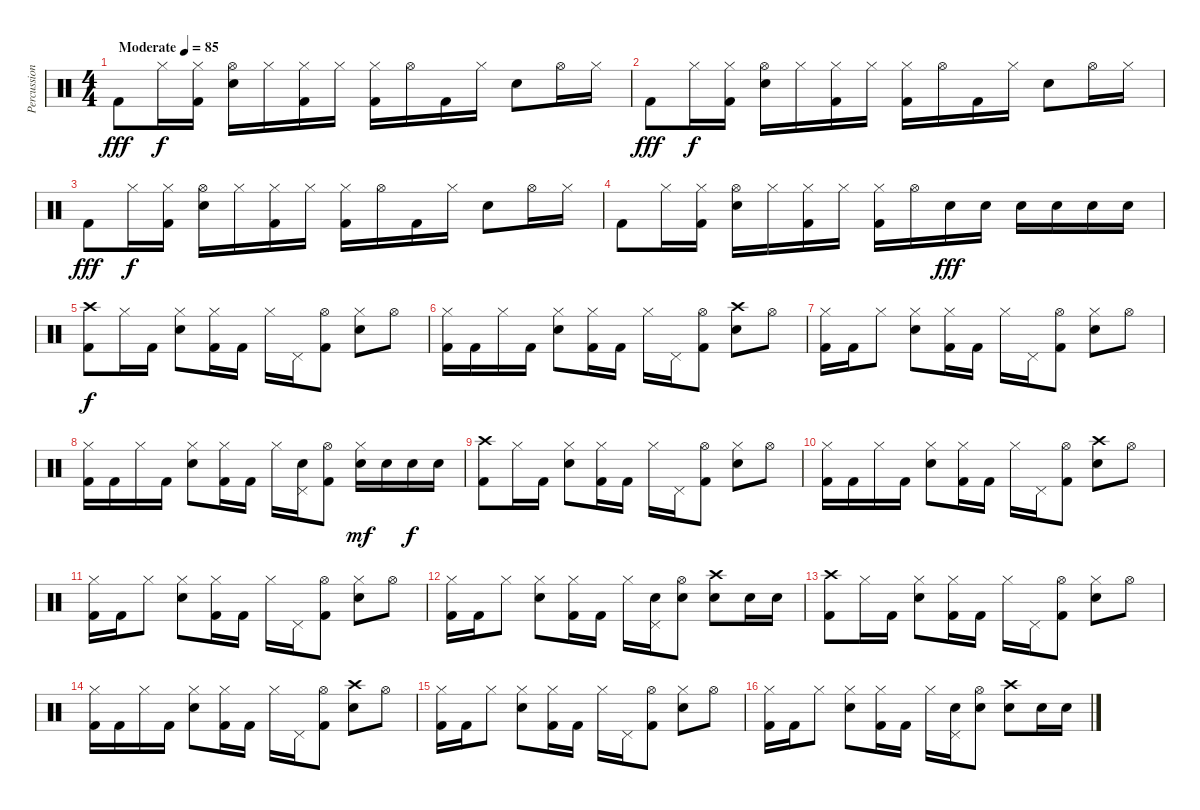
\track ("Percussion" "Percussion") {instrument percussion}
\staff {score}
\articulation defaults
\ts (4 4)
\tempo (85 "Moderate")
\clef neutral
\ks c "Kick (hit) 2".8{dy fff} "Hi-Hat (closed)".16{dy f}
("Hi-Hat (closed)" "Kick (hit) 2").16 ("Hi-Hat (open)" "Snare (hit) 2").16 "Hi-Hat (closed)".16 ("Hi-Hat (closed)" "Kick (hit) 2").16 "Hi-Hat (closed)".16 ("Hi-Hat (closed)" "Kick (hit) 2").16 "Hi-Hat (open)".16 "Kick (hit) 2".16 "Hi-Hat (closed)".16 "Snare (hit) 2".8 "Hi-Hat (open)".16 "Hi-Hat (closed)".16 |
"Kick (hit) 2".8{dy fff} "Hi-Hat (closed)".16{dy f} ("Hi-Hat (closed)" "Kick (hit) 2").16 ("Hi-Hat (open)" "Snare (hit) 2").16 "Hi-Hat (closed)".16 ("Hi-Hat (closed)" "Kick (hit) 2").16 "Hi-Hat (closed)".16 ("Hi-Hat (closed)" "Kick (hit) 2").16 "Hi-Hat (open)".16 "Kick (hit) 2".16 "Hi-Hat (closed)".16 "Snare (hit) 2".8 "Hi-Hat (open)".16 "Hi-Hat (closed)".16 |
"Kick (hit) 2".8{dy fff} "Hi-Hat (closed)".16{dy f} ("Hi-Hat (closed)" "Kick (hit) 2").16 ("Hi-Hat (open)" "Snare (hit) 2").16 "Hi-Hat (closed)".16 ("Hi-Hat (closed)" "Kick (hit) 2").16 "Hi-Hat (closed)".16 ("Hi-Hat (closed)" "Kick (hit) 2").16 "Hi-Hat (open)".16 "Kick (hit) 2".16 "Hi-Hat (closed)".16 "Snare (hit) 2".8 "Hi-Hat (open)".16 "Hi-Hat (closed)".16 |
"Kick (hit) 2".8 "Hi-Hat (closed)".16 ("Hi-Hat (closed)" "Kick (hit) 2").16 ("Snare (hit) 2" "Hi-Hat (open)").16 "Hi-Hat (closed)".16 ("Hi-Hat (closed)" "Kick (hit) 2").16 "Hi-Hat (closed)".16 ("Kick (hit) 2" "Hi-Hat (closed)").16 "Hi-Hat (open)".16 "Electric Snare (hit)".16{dy fff} "Electric Snare (hit)".16 "Electric Snare (hit)".16 "Electric Snare (hit)".16 "Electric Snare (hit)".16 "Electric Snare (hit)".16 |
("Crash high (hit)" "Kick (hit) 2").8{dy f} "Hi-Hat (closed)".16 "Kick (hit) 2".16 ("Hi-Hat (closed)" "Snare (hit) 2").8 ("Hi-Hat (closed)" "Kick (hit) 2").16 "Kick (hit) 2".16 "Hi-Hat (closed)".16 "Pedal Hi-Hat (hit)".16 ("Hi-Hat (open)" "Kick (hit) 2").8 ("Hi-Hat (closed)" "Snare (hit) 2").8 "Hi-Hat (open)".8 |
("Hi-Hat (closed)" "Kick (hit) 2").16 "Kick (hit) 2".16 "Hi-Hat (closed)".16 "Kick (hit) 2".16 ("Hi-Hat (closed)" "Snare (hit) 2").8 ("Hi-Hat (closed)" "Kick (hit) 2").16 "Kick (hit) 2".16 "Hi-Hat (closed)".16 "Pedal Hi-Hat (hit)".16 ("Kick (hit) 2" "Hi-Hat (open)").8 ("Snare (hit) 2" "Crash high (hit)").8 "Hi-Hat (open)".8 |
("Hi-Hat (closed)" "Kick (hit) 2").16 "Kick (hit) 2".16 "Hi-Hat (closed)".8 ("Hi-Hat (closed)" "Snare (hit) 2").8 ("Hi-Hat (closed)" "Kick (hit) 2").16 "Kick (hit) 2".16 "Hi-Hat (closed)".16 "Pedal Hi-Hat (hit)".16 ("Hi-Hat (open)" "Kick (hit) 2").8 ("Hi-Hat (closed)" "Snare (hit) 2").8 "Hi-Hat (open)".8 |
("Hi-Hat (closed)" "Kick (hit) 2").16 "Kick (hit) 2".16 "Hi-Hat (closed)".16 "Kick (hit) 2".16 ("Hi-Hat (closed)" "Snare (hit) 2").8 ("Hi-Hat (closed)" "Kick (hit) 2").16 "Kick (hit) 2".16 "Hi-Hat (closed)".16 ("Pedal Hi-Hat (hit)" "Electric Snare (hit)").16 ("Hi-Hat (open)" "Kick (hit) 2").8 ("Hi-Hat (closed)" "Snare (hit) 2").16{dy mf} "Snare (hit) 2".16 "Snare (hit) 2".16{dy f} "Snare (hit) 2".16 |
("Crash high (hit)" "Kick (hit) 2").8 "Hi-Hat (closed)".16 "Kick (hit) 2".16 ("Hi-Hat (closed)" "Snare (hit) 2").8 ("Hi-Hat (closed)" "Kick (hit) 2").16 "Kick (hit) 2".16 "Hi-Hat (closed)".16 "Pedal Hi-Hat (hit)".16 ("Hi-Hat (open)" "Kick (hit) 2").8 ("Hi-Hat (closed)" "Snare (hit) 2").8 "Hi-Hat (open)".8 |
("Hi-Hat (closed)" "Kick (hit) 2").16 "Kick (hit) 2".16 "Hi-Hat (closed)".16 "Kick (hit) 2".16 ("Hi-Hat (closed)" "Snare (hit) 2").8 ("Hi-Hat (closed)" "Kick (hit) 2").16 "Kick (hit) 2".16 "Hi-Hat (closed)".16 "Pedal Hi-Hat (hit)".16 ("Kick (hit) 2" "Hi-Hat (open)").8 ("Snare (hit) 2" "Crash high (hit)").8 "Hi-Hat (open)".8 |
("Hi-Hat (closed)" "Kick (hit) 2").16 "Kick (hit) 2".16 "Hi-Hat (closed)".8 ("Hi-Hat (closed)" "Snare (hit) 2").8 ("Hi-Hat (closed)" "Kick (hit) 2").16 "Kick (hit) 2".16 "Hi-Hat (closed)".16 "Pedal Hi-Hat (hit)".16 ("Hi-Hat (open)" "Kick (hit) 2").8 ("Hi-Hat (closed)" "Snare (hit) 2").8 "Hi-Hat (open)".8 |
("Hi-Hat (closed)" "Kick (hit) 2").16 "Kick (hit) 2".16 "Hi-Hat (closed)".8 ("Hi-Hat (closed)" "Snare (hit) 2").8 ("Hi-Hat (closed)" "Kick (hit) 2").16 "Kick (hit) 2".16 "Hi-Hat (closed)".16 ("Pedal Hi-Hat (hit)" "Snare (hit) 2").16 ("Hi-Hat (open)" "Snare (hit) 2").8 ("Crash high (hit)" "Snare (hit) 2").8 "Snare (hit) 2".16 "Snare (hit) 2".16 |
("Crash high (hit)" "Kick (hit) 2").8 "Hi-Hat (closed)".16 "Kick (hit) 2".16 ("Hi-Hat (closed)" "Snare (hit) 2").8 ("Hi-Hat (closed)" "Kick (hit) 2").16 "Kick (hit) 2".16 "Hi-Hat (closed)".16 "Pedal Hi-Hat (hit)".16 ("Hi-Hat (open)" "Kick (hit) 2").8 ("Hi-Hat (closed)" "Snare (hit) 2").8 "Hi-Hat (open)".8 |
("Hi-Hat (closed)" "Kick (hit) 2").16 "Kick (hit) 2".16 "Hi-Hat (closed)".16 "Kick (hit) 2".16 ("Hi-Hat (closed)" "Snare (hit) 2").8 ("Hi-Hat (closed)" "Kick (hit) 2").16 "Kick (hit) 2".16 "Hi-Hat (closed)".16 "Pedal Hi-Hat (hit)".16 ("Kick (hit) 2" "Hi-Hat (open)").8 ("Snare (hit) 2" "Crash high (hit)").8 "Hi-Hat (open)".8 |
("Hi-Hat (closed)" "Kick (hit) 2").16 "Kick (hit) 2".16 "Hi-Hat (closed)".8 ("Hi-Hat (closed)" "Snare (hit) 2").8 ("Hi-Hat (closed)" "Kick (hit) 2").16 "Kick (hit) 2".16 "Hi-Hat (closed)".16 "Pedal Hi-Hat (hit)".16 ("Hi-Hat (open)" "Kick (hit) 2").8 ("Hi-Hat (closed)" "Snare (hit) 2").8 "Hi-Hat (open)".8 |
("Hi-Hat (closed)" "Kick (hit) 2").16 "Kick (hit) 2".16 "Hi-Hat (closed)".8 ("Hi-Hat (closed)" "Snare (hit) 2").8 ("Hi-Hat (closed)" "Kick (hit) 2").16 "Kick (hit) 2".16 "Hi-Hat (closed)".16 ("Pedal Hi-Hat (hit)" "Snare (hit) 2").16 ("Hi-Hat (open)" "Snare (hit) 2").8 ("Crash high (hit)" "Snare (hit) 2").8 "Snare (hit) 2".16 "Snare (hit) 2".16
